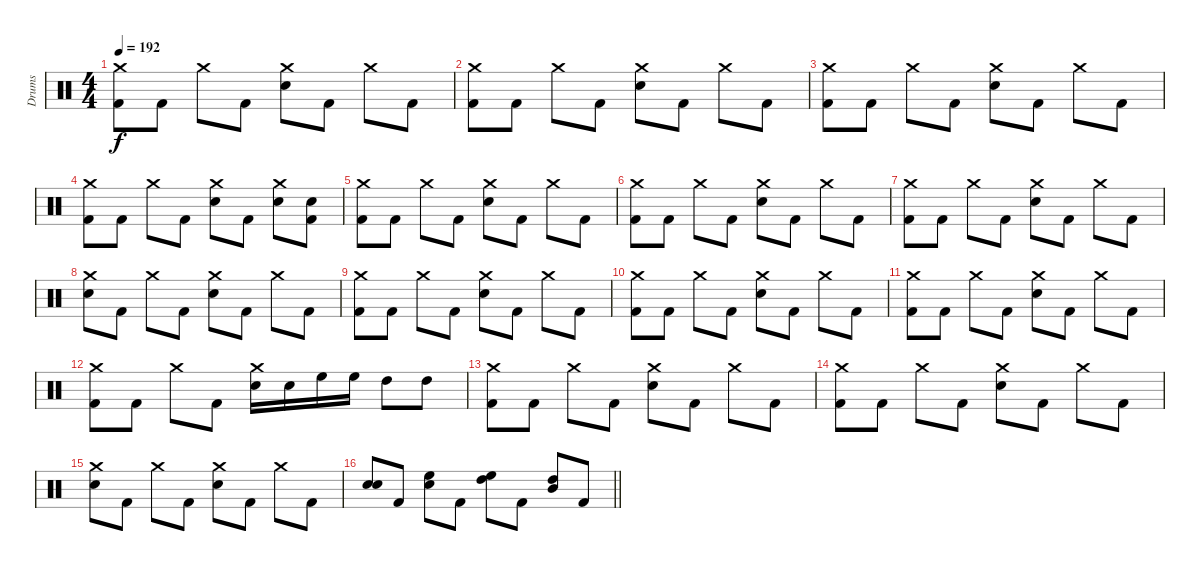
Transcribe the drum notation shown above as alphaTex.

\track ("Drums" "Drums") {instrument percussion}
\staff {score}
\articulation defaults
\ts (4 4)
\section ("" "")
\tempo 192
\clef neutral
\ks c
("Crash medium (hit)" "Kick (hit) 2").8{dy f} "Kick (hit) 2".8 "Crash medium (hit)".8 "Kick (hit) 2".8 ("Crash medium (hit)" "Electric Snare (hit)").8 "Kick (hit) 2".8 "Crash medium (hit)".8 "Kick (hit) 2".8 |
("Crash medium (hit)" "Kick (hit) 2").8 "Kick (hit) 2".8 "Crash medium (hit)".8 "Kick (hit) 2".8 ("Crash medium (hit)" "Electric Snare (hit)").8 "Kick (hit) 2".8 "Crash medium (hit)".8 "Kick (hit) 2".8 |
("Crash medium (hit)" "Kick (hit) 2").8 "Kick (hit) 2".8 "Crash medium (hit)".8 "Kick (hit) 2".8 ("Crash medium (hit)" "Electric Snare (hit)").8 "Kick (hit) 2".8 "Crash medium (hit)".8 "Kick (hit) 2".8 |
("Crash medium (hit)" "Kick (hit) 2").8 "Kick (hit) 2".8 "Crash medium (hit)".8 "Kick (hit) 2".8 ("Crash medium (hit)" "Electric Snare (hit)").8 "Kick (hit) 2".8 ("Crash medium (hit)" "Electric Snare (hit)").8 ("Electric Snare (hit)" "Kick (hit) 2").8 |
("Crash medium (hit)" "Kick (hit) 2").8 "Kick (hit) 2".8 "Crash medium (hit)".8 "Kick (hit) 2".8 ("Crash medium (hit)" "Electric Snare (hit)").8 "Kick (hit) 2".8 "Crash medium (hit)".8 "Kick (hit) 2".8 |
("Crash medium (hit)" "Kick (hit) 2").8 "Kick (hit) 2".8 "Crash medium (hit)".8 "Kick (hit) 2".8 ("Crash medium (hit)" "Electric Snare (hit)").8 "Kick (hit) 2".8 "Crash medium (hit)".8 "Kick (hit) 2".8 |
("Crash medium (hit)" "Kick (hit) 2").8 "Kick (hit) 2".8 "Crash medium (hit)".8 "Kick (hit) 2".8 ("Crash medium (hit)" "Electric Snare (hit)").8 "Kick (hit) 2".8 "Crash medium (hit)".8 "Kick (hit) 2".8 |
("Crash medium (hit)" "Electric Snare (hit)").8 "Kick (hit) 2".8 "Crash medium (hit)".8 "Kick (hit) 2".8 ("Crash medium (hit)" "Electric Snare (hit)").8 "Kick (hit) 2".8 "Crash medium (hit)".8 "Kick (hit) 2".8 |
("Crash medium (hit)" "Kick (hit) 2").8 "Kick (hit) 2".8 "Crash medium (hit)".8 "Kick (hit) 2".8 ("Crash medium (hit)" "Electric Snare (hit)").8 "Kick (hit) 2".8 "Crash medium (hit)".8 "Kick (hit) 2".8 |
("Crash medium (hit)" "Kick (hit) 2").8 "Kick (hit) 2".8 "Crash medium (hit)".8 "Kick (hit) 2".8 ("Crash medium (hit)" "Electric Snare (hit)").8 "Kick (hit) 2".8 "Crash medium (hit)".8 "Kick (hit) 2".8 |
("Crash medium (hit)" "Kick (hit) 2").8 "Kick (hit) 2".8 "Crash medium (hit)".8 "Kick (hit) 2".8 ("Crash medium (hit)" "Electric Snare (hit)").8 "Kick (hit) 2".8 "Crash medium (hit)".8 "Kick (hit) 2".8 |
("Crash medium (hit)" "Kick (hit) 2").8 "Kick (hit) 2".8 "Crash medium (hit)".8 "Kick (hit) 2".8 ("Crash medium (hit)" "Electric Snare (hit)").16 "Electric Snare (hit)".16 "High Floor Tom (hit)".16 "High Floor Tom (hit)".16 "High Tom (hit)".8 "High Tom (hit)".8 |
("Crash medium (hit)" "Kick (hit) 2").8 "Kick (hit) 2".8 "Crash medium (hit)".8 "Kick (hit) 2".8 ("Crash medium (hit)" "Electric Snare (hit)").8 "Kick (hit) 2".8 "Crash medium (hit)".8 "Kick (hit) 2".8 |
("Crash medium (hit)" "Kick (hit) 2").8 "Kick (hit) 2".8 "Crash medium (hit)".8 "Kick (hit) 2".8 ("Crash medium (hit)" "Electric Snare (hit)").8 "Kick (hit) 2".8 "Crash medium (hit)".8 "Kick (hit) 2".8 |
("Crash medium (hit)" "Electric Snare (hit)").8 "Kick (hit) 2".8 "Crash medium (hit)".8 "Kick (hit) 2".8 ("Crash medium (hit)" "Electric Snare (hit)").8 "Kick (hit) 2".8 "Crash medium (hit)".8 "Kick (hit) 2".8 |
\barLineRight lightlight
("Electric Snare (hit)" "Electric Snare (hit)").8 "Kick (hit) 2".8 ("Electric Snare (hit)" "High Floor Tom (hit)").8 "Kick (hit) 2".8 ("High Floor Tom (hit)" "High Tom (hit)").8 "Kick (hit) 2".8 ("High Tom (hit)" "Mid Tom (hit)").8 "Kick (hit) 2".8
